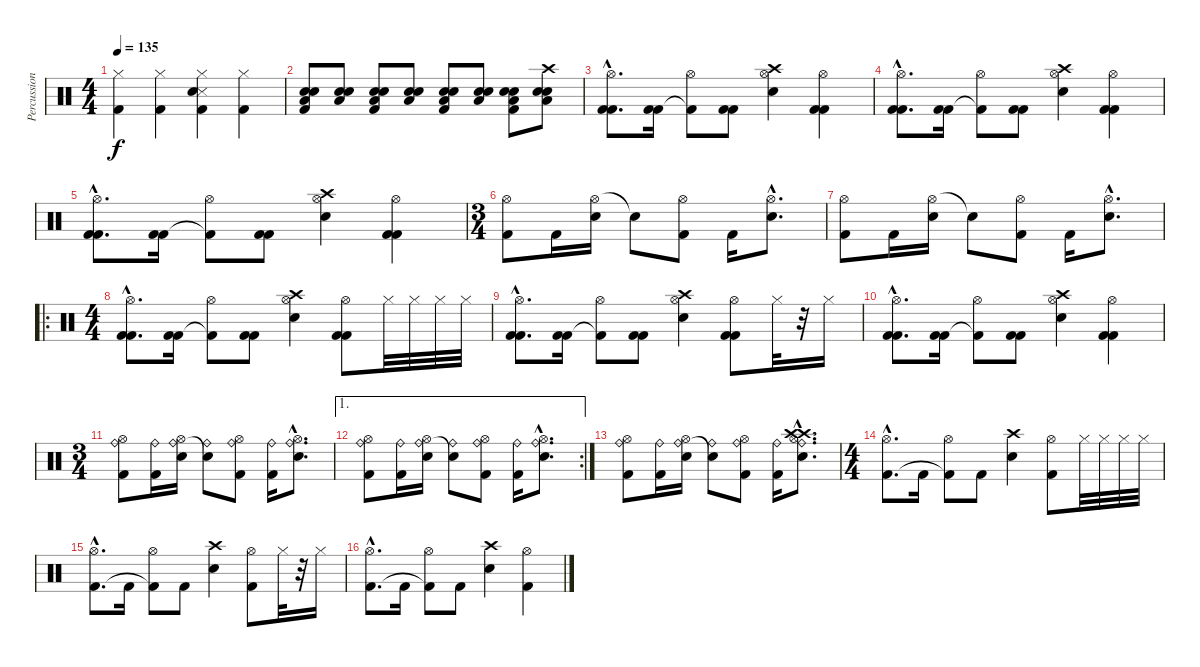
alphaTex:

\track ("Percussions" "Percussion") {instrument percussion}
\staff {score}
\articulation defaults
\ts (4 4)
\tempo 135
\clef neutral
\ks c
("Hi-Hat (closed)" "Kick (hit) 2").4{dy f} ("Hi-Hat (closed)" "Kick (hit) 2").4 ("Hi-Hat (closed)" "Snare (side stick) 3" "Electric Snare (hit)" "Kick (hit) 2").4 ("Hi-Hat (closed)" "Kick (hit) 2").4 |
("Low Tom (hit)" "Electric Snare (hit)" "Electric Snare (hit)" "Kick (hit) 2").8{volume 7} ("Low Tom (hit)" "Electric Snare (hit)" "Electric Snare (hit)").8{volume 13} ("Low Tom (hit)" "Electric Snare (hit)" "Electric Snare (hit)" "Kick (hit) 2").8 ("Low Tom (hit)" "Electric Snare (hit)" "Electric Snare (hit)").8 ("Low Tom (hit)" "Electric Snare (hit)" "Electric Snare (hit)" "Kick (hit) 2").8 ("Low Tom (hit)" "Electric Snare (hit)" "Electric Snare (hit)").8 ("Low Tom (hit)" "Electric Snare (hit)" "Electric Snare (hit)" "Kick (hit) 2").8 ("Low Tom (hit)" "Electric Snare (hit)" "Crash high (hit)" "Electric Snare (hit)").8 |
("Hi-Hat (open)"{hac} "Kick (hit) 2"{hac} "Kick (hit) 2"{hac}).8{d} ("Kick (hit) 2" "Kick (hit) 2").16 ("Hi-Hat (open)" "Kick (hit) 2"{t}).8 ("Kick (hit) 2" "Kick (hit) 2").8 ("Crash high (hit)" "Hi-Hat (open)" "Electric Snare (hit)").4 ("Hi-Hat (open)" "Kick (hit) 2" "Kick (hit) 2").4 |
("Hi-Hat (open)"{hac} "Kick (hit) 2"{hac} "Kick (hit) 2"{hac}).8{d} ("Kick (hit) 2" "Kick (hit) 2").16 ("Hi-Hat (open)" "Kick (hit) 2"{t}).8 ("Kick (hit) 2" "Kick (hit) 2").8 ("Crash high (hit)" "Hi-Hat (open)" "Electric Snare (hit)").4 ("Hi-Hat (open)" "Kick (hit) 2" "Kick (hit) 2").4 |
("Hi-Hat (open)"{hac} "Kick (hit) 2"{hac} "Kick (hit) 2"{hac}).8{d} ("Kick (hit) 2" "Kick (hit) 2").16 ("Hi-Hat (open)" "Kick (hit) 2"{t}).8 ("Kick (hit) 2" "Kick (hit) 2").8 ("Crash high (hit)" "Hi-Hat (open)" "Electric Snare (hit)").4 ("Hi-Hat (open)" "Kick (hit) 2" "Kick (hit) 2").4 |
\ts (3 4)
("Hi-Hat (open)" "Kick (hit) 2").8 "Kick (hit) 2".16 ("Hi-Hat (open)" "Electric Snare (hit)").16 "Electric Snare (hit)"{t}.8 ("Hi-Hat (open)" "Kick (hit) 2").8 "Kick (hit) 2".16 ("Hi-Hat (open)"{hac} "Electric Snare (hit)"{hac}).8{d} |
("Hi-Hat (open)" "Kick (hit) 2").8 "Kick (hit) 2".16 ("Hi-Hat (open)" "Electric Snare (hit)").16 "Electric Snare (hit)"{t}.8 ("Hi-Hat (open)" "Kick (hit) 2").8 "Kick (hit) 2".16 ("Hi-Hat (open)"{hac} "Electric Snare (hit)"{hac}).8{d} |
\ro
\ts (4 4)
("Hi-Hat (open)"{hac} "Kick (hit) 2"{hac} "Kick (hit) 2"{hac}).8{d} ("Kick (hit) 2" "Kick (hit) 2").16 ("Hi-Hat (open)" "Kick (hit) 2"{t}).8 ("Kick (hit) 2" "Kick (hit) 2").8 ("Crash high (hit)" "Hi-Hat (open)" "Electric Snare (hit)").4 ("Hi-Hat (open)" "Kick (hit) 2" "Kick (hit) 2").8 "Hi-Hat (closed)".32 "Hi-Hat (closed)".32 "Hi-Hat (closed)".32 "Hi-Hat (closed)".32 |
("Hi-Hat (open)"{hac} "Kick (hit) 2"{hac} "Kick (hit) 2"{hac}).8{d} ("Kick (hit) 2" "Kick (hit) 2").16 ("Hi-Hat (open)" "Kick (hit) 2"{t}).8 ("Kick (hit) 2" "Kick (hit) 2").8 ("Crash high (hit)" "Hi-Hat (open)" "Electric Snare (hit)").4 ("Hi-Hat (open)" "Kick (hit) 2" "Kick (hit) 2").8 "Hi-Hat (closed)".32 r.32 "Hi-Hat (closed)".16 |
("Hi-Hat (open)"{hac} "Kick (hit) 2"{hac} "Kick (hit) 2"{hac}).8{d} ("Kick (hit) 2" "Kick (hit) 2").16 ("Hi-Hat (open)" "Kick (hit) 2"{t}).8 ("Kick (hit) 2" "Kick (hit) 2").8 ("Crash high (hit)" "Hi-Hat (open)" "Electric Snare (hit)").4 ("Hi-Hat (open)" "Kick (hit) 2" "Kick (hit) 2").4 |
\ts (3 4)
("Hi-Hat (open)" "Ride (bell)" "Kick (hit) 2").8 ("Ride (bell)" "Kick (hit) 2").16 ("Hi-Hat (open)" "Ride (bell)" "Electric Snare (hit)").16 ("Ride (bell)" "Electric Snare (hit)"{t}).8 ("Hi-Hat (open)" "Ride (bell)" "Kick (hit) 2").8 ("Ride (bell)" "Kick (hit) 2").16 ("Hi-Hat (open)"{hac} "Ride (bell)"{hac} "Electric Snare (hit)"{hac}).8{d} |
\ae 1
\rc 2
("Hi-Hat (open)" "Ride (bell)" "Kick (hit) 2").8 ("Ride (bell)" "Kick (hit) 2").16 ("Hi-Hat (open)" "Ride (bell)" "Electric Snare (hit)").16 ("Ride (bell)" "Electric Snare (hit)"{t}).8 ("Hi-Hat (open)" "Ride (bell)" "Kick (hit) 2").8 ("Ride (bell)" "Kick (hit) 2").16 ("Hi-Hat (open)"{hac} "Ride (bell)"{hac} "Electric Snare (hit)"{hac}).8{d} |
("Hi-Hat (open)" "Ride (bell)" "Kick (hit) 2").8 ("Ride (bell)" "Kick (hit) 2").16 ("Hi-Hat (open)" "Ride (bell)" "Electric Snare (hit)").16 ("Ride (bell)" "Electric Snare (hit)"{t}).8 ("Hi-Hat (open)" "Ride (bell)" "Kick (hit) 2").8 ("Ride (bell)" "Kick (hit) 2").16 ("Hi-Hat (open)"{hac} "Ride (bell)"{hac} "Crash high (hit)"{hac} "Crash high (hit)"{hac} "Electric Snare (hit)"{hac}).8{d} |
\ts (4 4)
("Hi-Hat (open)"{hac} "Kick (hit) 2"{hac}).8{d} "Kick (hit) 2".16 ("Hi-Hat (open)" "Kick (hit) 2"{t}).8 "Kick (hit) 2".8 ("Crash high (hit)" "Electric Snare (hit)").4 ("Hi-Hat (open)" "Kick (hit) 2").8 "Hi-Hat (closed)".32 "Hi-Hat (closed)".32 "Hi-Hat (closed)".32 "Hi-Hat (closed)".32 |
("Hi-Hat (open)"{hac} "Kick (hit) 2"{hac}).8{d} "Kick (hit) 2".16 ("Hi-Hat (open)" "Kick (hit) 2"{t}).8 "Kick (hit) 2".8 ("Crash high (hit)" "Electric Snare (hit)").4 ("Hi-Hat (open)" "Kick (hit) 2").8 "Hi-Hat (closed)".32 r.32 "Hi-Hat (closed)".16 |
("Hi-Hat (open)"{hac} "Kick (hit) 2"{hac}).8{d} "Kick (hit) 2".16 ("Hi-Hat (open)" "Kick (hit) 2"{t}).8 "Kick (hit) 2".8 ("Crash high (hit)" "Electric Snare (hit)").4 ("Hi-Hat (open)" "Kick (hit) 2").4
